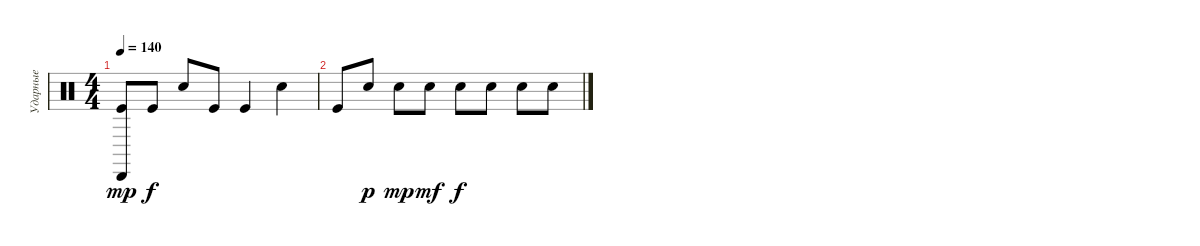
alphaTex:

\track ("Ударные" "Ударные") {instrument percussion}
\staff {score}
\articulation defaults
\ts (4 4)
\tempo 140
\clef neutral
\ks c
("Cabasa (hit)" "Kick (hit)").8{dy mp} "Kick (hit)".8{dy f} "Electric Snare (hit)".8 "Kick (hit)".8 "Kick (hit)".4 "Electric Snare (hit)".4 |
"Kick (hit)".8 "Electric Snare (hit)".8{dy p} "Electric Snare (hit)".8{dy mp} "Electric Snare (hit)".8{dy mf} "Electric Snare (hit)".8{dy f} "Electric Snare (hit)".8 "Electric Snare (hit)".8 "Electric Snare (hit)".8
